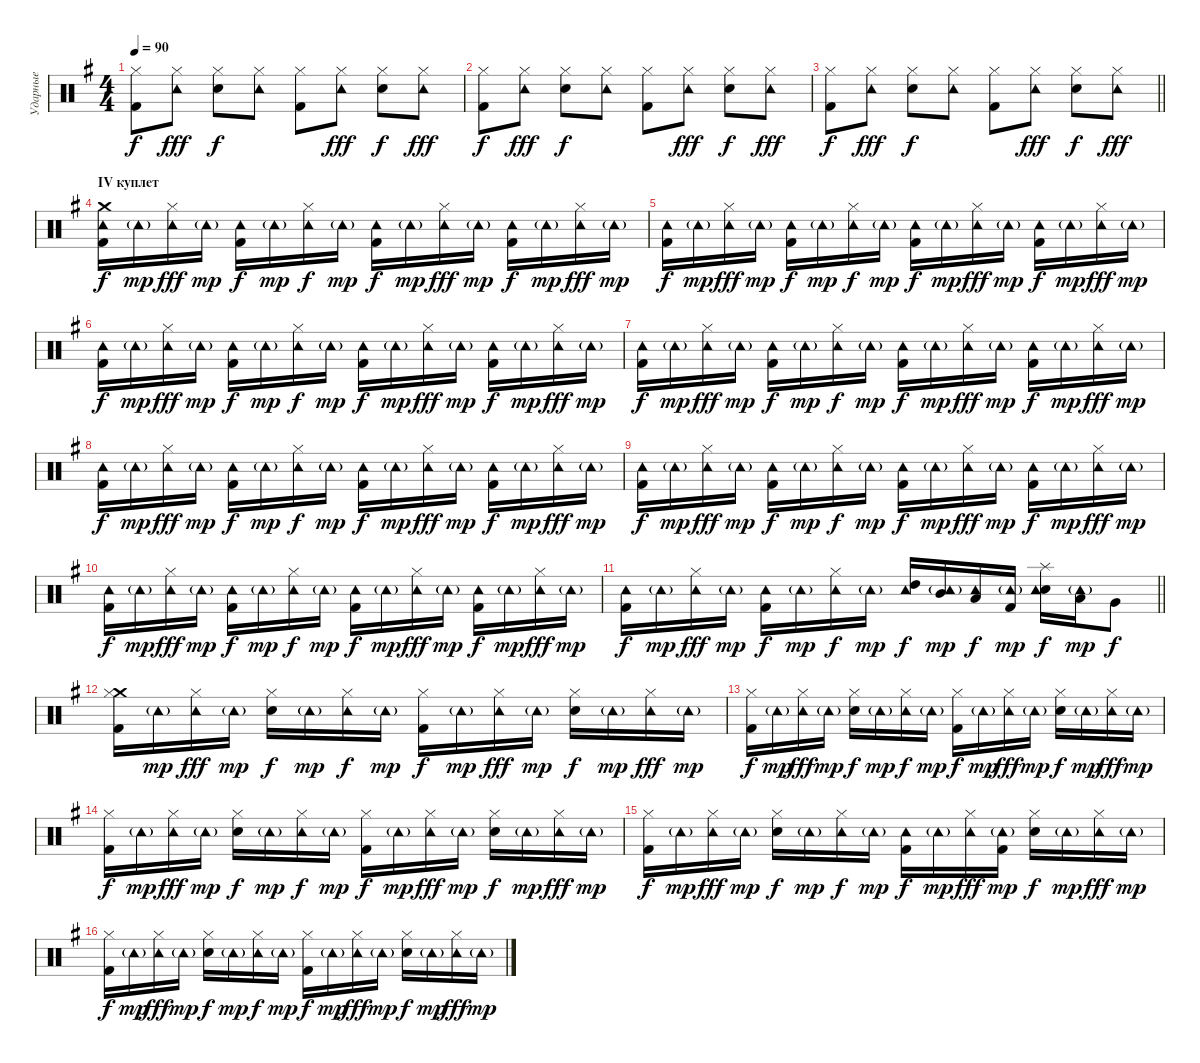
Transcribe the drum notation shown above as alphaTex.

\track ("Ударные" "Ударные") {instrument percussion}
\staff {score}
\articulation defaults
\ts (4 4)
\tempo 90
\clef neutral
\ks eminor
("Kick (hit) 2" "Hi-Hat (closed)").8{dy f} ("Hi-Hat (closed)" "Tambourine (hit)").8{dy fff} ("Electric Snare (hit)" "Hi-Hat (closed)").8{dy f} ("Hi-Hat (closed)" "Tambourine (hit)").8 ("Kick (hit) 2" "Hi-Hat (closed)").8 ("Hi-Hat (closed)" "Tambourine (hit)").8{dy fff} ("Electric Snare (hit)" "Hi-Hat (closed)").8{dy f} ("Hi-Hat (closed)" "Tambourine (hit)").8{dy fff} |
("Kick (hit) 2" "Hi-Hat (closed)").8{dy f} ("Hi-Hat (closed)" "Tambourine (hit)").8{dy fff} ("Electric Snare (hit)" "Hi-Hat (closed)").8{dy f} ("Hi-Hat (closed)" "Tambourine (hit)").8 ("Kick (hit) 2" "Hi-Hat (closed)").8 ("Hi-Hat (closed)" "Tambourine (hit)").8{dy fff} ("Electric Snare (hit)" "Hi-Hat (closed)").8{dy f} ("Hi-Hat (closed)" "Tambourine (hit)").8{dy fff} |
\barLineRight lightlight
("Kick (hit) 2" "Hi-Hat (closed)").8{dy f} ("Hi-Hat (closed)" "Tambourine (hit)").8{dy fff} ("Electric Snare (hit)" "Hi-Hat (closed)").8{dy f} ("Hi-Hat (closed)" "Tambourine (hit)").8 ("Kick (hit) 2" "Hi-Hat (closed)").8 ("Hi-Hat (closed)" "Tambourine (hit)").8{dy fff} ("Electric Snare (hit)" "Hi-Hat (closed)").8{dy f} ("Hi-Hat (closed)" "Tambourine (hit)").8{dy fff} |
\section ("" "IV куплет")
("Crash medium (hit)" "Kick (hit) 2" "Tambourine (hit)").16{dy f} "Tambourine (hit)"{g}.16{dy mp} ("Hi-Hat (closed)" "Tambourine (hit)").16{dy fff} "Tambourine (hit)"{g}.16{dy mp} ("Kick (hit) 2" "Tambourine (hit)").16{dy f} "Tambourine (hit)"{g}.16{dy mp} ("Hi-Hat (closed)" "Tambourine (hit)").16{dy f} "Tambourine (hit)"{g}.16{dy mp} ("Kick (hit) 2" "Tambourine (hit)").16{dy f} "Tambourine (hit)"{g}.16{dy mp} ("Hi-Hat (closed)" "Tambourine (hit)").16{dy fff} "Tambourine (hit)"{g}.16{dy mp} ("Kick (hit) 2" "Tambourine (hit)").16{dy f} "Tambourine (hit)"{g}.16{dy mp} ("Hi-Hat (closed)" "Tambourine (hit)").16{dy fff} "Tambourine (hit)"{g}.16{dy mp} |
("Kick (hit) 2" "Tambourine (hit)").16{dy f} "Tambourine (hit)"{g}.16{dy mp} ("Hi-Hat (closed)" "Tambourine (hit)").16{dy fff} "Tambourine (hit)"{g}.16{dy mp} ("Kick (hit) 2" "Tambourine (hit)").16{dy f} "Tambourine (hit)"{g}.16{dy mp} ("Hi-Hat (closed)" "Tambourine (hit)").16{dy f} "Tambourine (hit)"{g}.16{dy mp} ("Kick (hit) 2" "Tambourine (hit)").16{dy f} "Tambourine (hit)"{g}.16{dy mp} ("Hi-Hat (closed)" "Tambourine (hit)").16{dy fff} "Tambourine (hit)"{g}.16{dy mp} ("Kick (hit) 2" "Tambourine (hit)").16{dy f} "Tambourine (hit)"{g}.16{dy mp} ("Hi-Hat (closed)" "Tambourine (hit)").16{dy fff} "Tambourine (hit)"{g}.16{dy mp} |
("Kick (hit) 2" "Tambourine (hit)").16{dy f} "Tambourine (hit)"{g}.16{dy mp} ("Hi-Hat (closed)" "Tambourine (hit)").16{dy fff} "Tambourine (hit)"{g}.16{dy mp} ("Kick (hit) 2" "Tambourine (hit)").16{dy f} "Tambourine (hit)"{g}.16{dy mp} ("Hi-Hat (closed)" "Tambourine (hit)").16{dy f} "Tambourine (hit)"{g}.16{dy mp} ("Kick (hit) 2" "Tambourine (hit)").16{dy f} "Tambourine (hit)"{g}.16{dy mp} ("Hi-Hat (closed)" "Tambourine (hit)").16{dy fff} "Tambourine (hit)"{g}.16{dy mp} ("Kick (hit) 2" "Tambourine (hit)").16{dy f} "Tambourine (hit)"{g}.16{dy mp} ("Hi-Hat (closed)" "Tambourine (hit)").16{dy fff} "Tambourine (hit)"{g}.16{dy mp} |
("Kick (hit) 2" "Tambourine (hit)").16{dy f} "Tambourine (hit)"{g}.16{dy mp} ("Hi-Hat (closed)" "Tambourine (hit)").16{dy fff} "Tambourine (hit)"{g}.16{dy mp} ("Kick (hit) 2" "Tambourine (hit)").16{dy f} "Tambourine (hit)"{g}.16{dy mp} ("Hi-Hat (closed)" "Tambourine (hit)").16{dy f} "Tambourine (hit)"{g}.16{dy mp} ("Kick (hit) 2" "Tambourine (hit)").16{dy f} "Tambourine (hit)"{g}.16{dy mp} ("Hi-Hat (closed)" "Tambourine (hit)").16{dy fff} "Tambourine (hit)"{g}.16{dy mp} ("Kick (hit) 2" "Tambourine (hit)").16{dy f} "Tambourine (hit)"{g}.16{dy mp} ("Hi-Hat (closed)" "Tambourine (hit)").16{dy fff} "Tambourine (hit)"{g}.16{dy mp} |
("Kick (hit) 2" "Tambourine (hit)").16{dy f} "Tambourine (hit)"{g}.16{dy mp} ("Hi-Hat (closed)" "Tambourine (hit)").16{dy fff} "Tambourine (hit)"{g}.16{dy mp} ("Kick (hit) 2" "Tambourine (hit)").16{dy f} "Tambourine (hit)"{g}.16{dy mp} ("Hi-Hat (closed)" "Tambourine (hit)").16{dy f} "Tambourine (hit)"{g}.16{dy mp} ("Kick (hit) 2" "Tambourine (hit)").16{dy f} "Tambourine (hit)"{g}.16{dy mp} ("Hi-Hat (closed)" "Tambourine (hit)").16{dy fff} "Tambourine (hit)"{g}.16{dy mp} ("Kick (hit) 2" "Tambourine (hit)").16{dy f} "Tambourine (hit)"{g}.16{dy mp} ("Hi-Hat (closed)" "Tambourine (hit)").16{dy fff} "Tambourine (hit)"{g}.16{dy mp} |
("Kick (hit) 2" "Tambourine (hit)").16{dy f} "Tambourine (hit)"{g}.16{dy mp} ("Hi-Hat (closed)" "Tambourine (hit)").16{dy fff} "Tambourine (hit)"{g}.16{dy mp} ("Kick (hit) 2" "Tambourine (hit)").16{dy f} "Tambourine (hit)"{g}.16{dy mp} ("Hi-Hat (closed)" "Tambourine (hit)").16{dy f} "Tambourine (hit)"{g}.16{dy mp} ("Kick (hit) 2" "Tambourine (hit)").16{dy f} "Tambourine (hit)"{g}.16{dy mp} ("Hi-Hat (closed)" "Tambourine (hit)").16{dy fff} "Tambourine (hit)"{g}.16{dy mp} ("Kick (hit) 2" "Tambourine (hit)").16{dy f} "Tambourine (hit)"{g}.16{dy mp} ("Hi-Hat (closed)" "Tambourine (hit)").16{dy fff} "Tambourine (hit)"{g}.16{dy mp} |
("Kick (hit) 2" "Tambourine (hit)").16{dy f} "Tambourine (hit)"{g}.16{dy mp} ("Hi-Hat (closed)" "Tambourine (hit)").16{dy fff} "Tambourine (hit)"{g}.16{dy mp} ("Kick (hit) 2" "Tambourine (hit)").16{dy f} "Tambourine (hit)"{g}.16{dy mp} ("Hi-Hat (closed)" "Tambourine (hit)").16{dy f} "Tambourine (hit)"{g}.16{dy mp} ("Kick (hit) 2" "Tambourine (hit)").16{dy f} "Tambourine (hit)"{g}.16{dy mp} ("Hi-Hat (closed)" "Tambourine (hit)").16{dy fff} "Tambourine (hit)"{g}.16{dy mp} ("Kick (hit) 2" "Tambourine (hit)").16{dy f} "Tambourine (hit)"{g}.16{dy mp} ("Hi-Hat (closed)" "Tambourine (hit)").16{dy fff} "Tambourine (hit)"{g}.16{dy mp} |
\barLineRight lightlight
("Kick (hit) 2" "Tambourine (hit)").16{dy f} "Tambourine (hit)"{g}.16{dy mp} ("Hi-Hat (closed)" "Tambourine (hit)").16{dy fff} "Tambourine (hit)"{g}.16{dy mp} ("Kick (hit) 2" "Tambourine (hit)").16{dy f} "Tambourine (hit)"{g}.16{dy mp} ("Hi-Hat (closed)" "Tambourine (hit)").16{dy f} "Tambourine (hit)"{g}.16{dy mp} ("High Tom (hit)" "Tambourine (hit)").16{dy f} ("Mid Tom (hit)" "Tambourine (hit)"{g}).16{dy mp} ("Low Tom (hit)" "Tambourine (hit)").16{dy f} ("Kick (hit) 2" "Tambourine (hit)"{g}).16{dy mp} ("Splash (hit)" "Electric Snare (hit)" "Tambourine (hit)").16{dy f} ("Low Tom (hit)" "Tambourine (hit)"{g}).16{dy mp} "Very Low Tom (hit)".8{dy f} |
("Crash medium (hit)" "Kick (hit) 2" "Hi-Hat (closed)").16 "Tambourine (hit)"{g}.16{dy mp} ("Hi-Hat (closed)" "Tambourine (hit)").16{dy fff} "Tambourine (hit)"{g}.16{dy mp} ("Electric Snare (hit)" "Hi-Hat (closed)").16{dy f} "Tambourine (hit)"{g}.16{dy mp} ("Hi-Hat (closed)" "Tambourine (hit)").16{dy f} "Tambourine (hit)"{g}.16{dy mp} ("Kick (hit) 2" "Hi-Hat (closed)").16{dy f} "Tambourine (hit)"{g}.16{dy mp} ("Hi-Hat (closed)" "Tambourine (hit)").16{dy fff} "Tambourine (hit)"{g}.16{dy mp} ("Electric Snare (hit)" "Hi-Hat (closed)").16{dy f} "Tambourine (hit)"{g}.16{dy mp} ("Hi-Hat (closed)" "Tambourine (hit)").16{dy fff} "Tambourine (hit)"{g}.16{dy mp} |
("Kick (hit) 2" "Hi-Hat (closed)").16{dy f} "Tambourine (hit)"{g}.16{dy mp} ("Hi-Hat (closed)" "Tambourine (hit)").16{dy fff} "Tambourine (hit)"{g}.16{dy mp} ("Electric Snare (hit)" "Hi-Hat (closed)").16{dy f} "Tambourine (hit)"{g}.16{dy mp} ("Hi-Hat (closed)" "Tambourine (hit)").16{dy f} "Tambourine (hit)"{g}.16{dy mp} ("Kick (hit) 2" "Hi-Hat (closed)").16{dy f} "Tambourine (hit)"{g}.16{dy mp} ("Hi-Hat (closed)" "Tambourine (hit)").16{dy fff} "Tambourine (hit)"{g}.16{dy mp} ("Electric Snare (hit)" "Hi-Hat (closed)").16{dy f} "Tambourine (hit)"{g}.16{dy mp} ("Hi-Hat (closed)" "Tambourine (hit)").16{dy fff} "Tambourine (hit)"{g}.16{dy mp} |
("Kick (hit) 2" "Hi-Hat (closed)").16{dy f} "Tambourine (hit)"{g}.16{dy mp} ("Hi-Hat (closed)" "Tambourine (hit)").16{dy fff} "Tambourine (hit)"{g}.16{dy mp} ("Electric Snare (hit)" "Hi-Hat (closed)").16{dy f} "Tambourine (hit)"{g}.16{dy mp} ("Hi-Hat (closed)" "Tambourine (hit)").16{dy f} "Tambourine (hit)"{g}.16{dy mp} ("Kick (hit) 2" "Hi-Hat (closed)").16{dy f} "Tambourine (hit)"{g}.16{dy mp} ("Hi-Hat (closed)" "Tambourine (hit)").16{dy fff} "Tambourine (hit)"{g}.16{dy mp} ("Electric Snare (hit)" "Hi-Hat (closed)").16{dy f} "Tambourine (hit)"{g}.16{dy mp} ("Hi-Hat (closed)" "Tambourine (hit)").16{dy fff} "Tambourine (hit)"{g}.16{dy mp} |
("Kick (hit) 2" "Hi-Hat (closed)").16{dy f} "Tambourine (hit)"{g}.16{dy mp} ("Hi-Hat (closed)" "Tambourine (hit)").16{dy fff} "Tambourine (hit)"{g}.16{dy mp} ("Electric Snare (hit)" "Hi-Hat (closed)").16{dy f} "Tambourine (hit)"{g}.16{dy mp} ("Hi-Hat (closed)" "Tambourine (hit)").16{dy f} "Tambourine (hit)"{g}.16{dy mp} ("Kick (hit) 2" "Tambourine (hit)").16{dy f} "Tambourine (hit)"{g}.16{dy mp} ("Hi-Hat (closed)" "Tambourine (hit)").16{dy fff} ("Kick (hit) 2" "Tambourine (hit)"{g}).16{dy mp} ("Electric Snare (hit)" "Hi-Hat (closed)").16{dy f} "Tambourine (hit)"{g}.16{dy mp} ("Hi-Hat (closed)" "Tambourine (hit)").16{dy fff} "Tambourine (hit)"{g}.16{dy mp} |
("Kick (hit) 2" "Hi-Hat (closed)").16{dy f} "Tambourine (hit)"{g}.16{dy mp} ("Hi-Hat (closed)" "Tambourine (hit)").16{dy fff} "Tambourine (hit)"{g}.16{dy mp} ("Electric Snare (hit)" "Hi-Hat (closed)").16{dy f} "Tambourine (hit)"{g}.16{dy mp} ("Hi-Hat (closed)" "Tambourine (hit)").16{dy f} "Tambourine (hit)"{g}.16{dy mp} ("Kick (hit) 2" "Hi-Hat (closed)").16{dy f} "Tambourine (hit)"{g}.16{dy mp} ("Hi-Hat (closed)" "Tambourine (hit)").16{dy fff} "Tambourine (hit)"{g}.16{dy mp} ("Electric Snare (hit)" "Hi-Hat (closed)").16{dy f} "Tambourine (hit)"{g}.16{dy mp} ("Hi-Hat (closed)" "Tambourine (hit)").16{dy fff} "Tambourine (hit)"{g}.16{dy mp}
